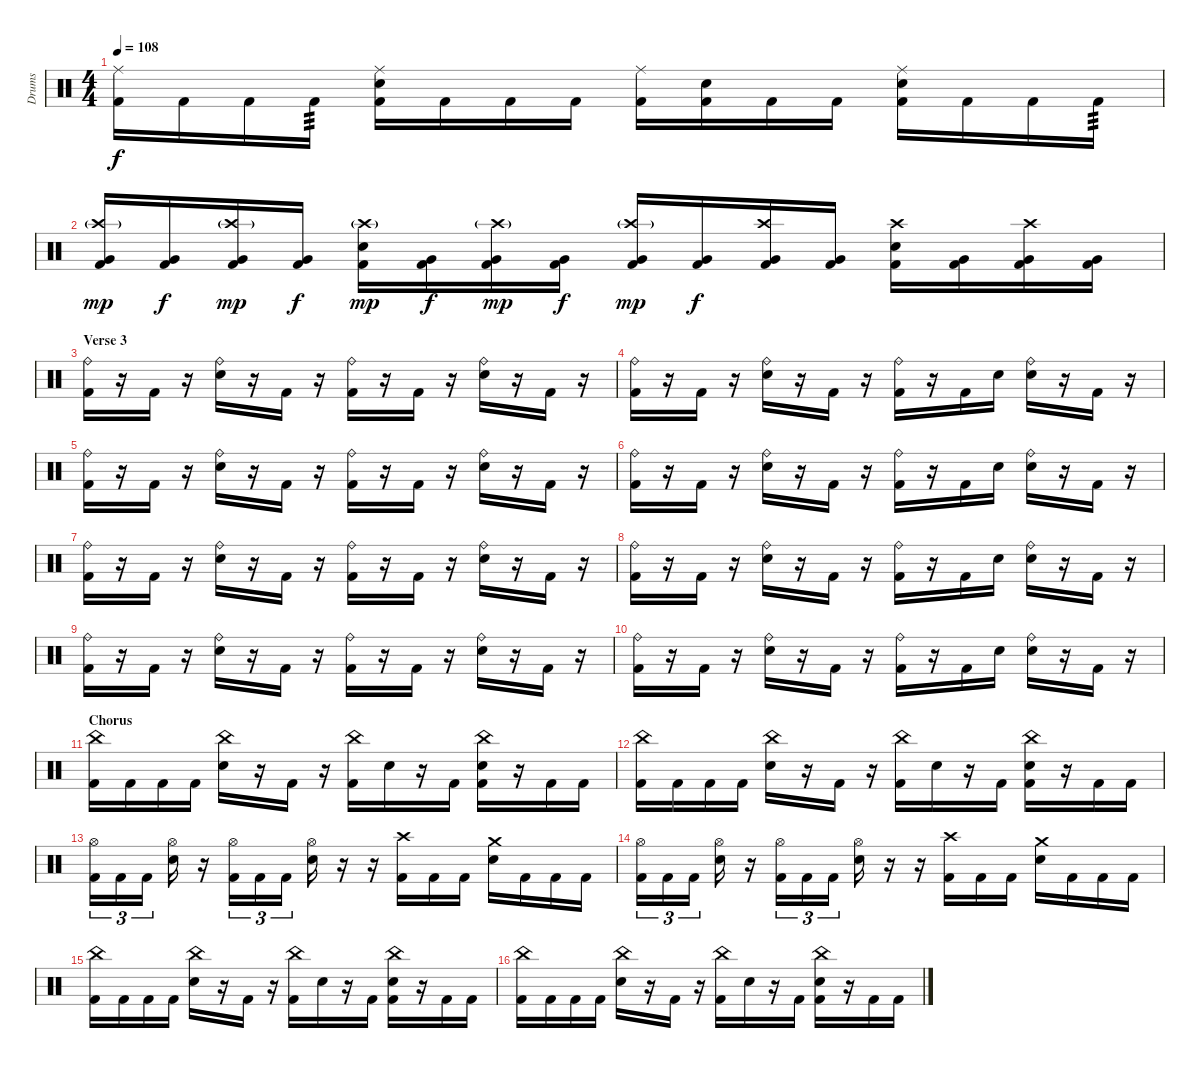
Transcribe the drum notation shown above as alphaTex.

\track ("Drums" "Drums") {instrument percussion}
\staff {score}
\articulation defaults
\ts (4 4)
\tempo 108
\clef neutral
\ks c
("Ride (middle)" "Kick (hit) 2").16{dy f} "Kick (hit) 2".16 "Kick (hit) 2".16 "Kick (hit) 2".16{tp 3} ("Ride (middle)" "Electric Snare (hit)" "Kick (hit) 2").16 "Kick (hit) 2".16 "Kick (hit) 2".16 "Kick (hit) 2".16 ("Ride (middle)" "Kick (hit) 2").16 ("Electric Snare (hit)" "Kick (hit) 2").16 "Kick (hit) 2".16 "Kick (hit) 2".16 ("Ride (middle)" "Electric Snare (hit)" "Kick (hit) 2").16 "Kick (hit) 2".16 "Kick (hit) 2".16 "Kick (hit) 2".16{tp 3} |
("Crash high (hit)"{g} "Very Low Tom (hit)" "Kick (hit) 2").16{dy mp} ("Very Low Tom (hit)" "Kick (hit) 2").16{dy f} ("Crash high (hit)"{g} "Very Low Tom (hit)" "Kick (hit) 2").16{dy mp} ("Very Low Tom (hit)" "Kick (hit) 2").16{dy f} ("Crash high (hit)"{g} "Electric Snare (hit)" "Kick (hit) 2").16{dy mp} ("Very Low Tom (hit)" "Kick (hit) 2").16{dy f} ("Crash high (hit)"{g} "Very Low Tom (hit)" "Kick (hit) 2").16{dy mp} ("Very Low Tom (hit)" "Kick (hit) 2").16{dy f} ("Crash high (hit)"{g} "Very Low Tom (hit)" "Kick (hit) 2").16{dy mp} ("Very Low Tom (hit)" "Kick (hit) 2").16{dy f} ("Crash high (hit)" "Very Low Tom (hit)" "Kick (hit) 2").16 ("Very Low Tom (hit)" "Kick (hit) 2").16 ("Crash high (hit)" "Electric Snare (hit)" "Kick (hit) 2").16 ("Very Low Tom (hit)" "Kick (hit) 2").16 ("Crash high (hit)" "Very Low Tom (hit)" "Kick (hit) 2").16 ("Very Low Tom (hit)" "Kick (hit) 2").16 |
\section ("" "Verse 3")
("Ride (bell)" "Kick (hit) 2").16 r.16 "Kick (hit) 2".16 r.16 ("Ride (bell)" "Electric Snare (hit)").16 r.16 "Kick (hit) 2".16 r.16 ("Ride (bell)" "Kick (hit) 2").16 r.16 "Kick (hit) 2".16 r.16 ("Ride (bell)" "Electric Snare (hit)").16 r.16 "Kick (hit) 2".16 r.16 |
("Ride (bell)" "Kick (hit) 2").16 r.16 "Kick (hit) 2".16 r.16 ("Ride (bell)" "Electric Snare (hit)").16 r.16 "Kick (hit) 2".16 r.16 ("Ride (bell)" "Kick (hit) 2").16 r.16 "Kick (hit) 2".16 "Electric Snare (hit)".16 ("Ride (bell)" "Electric Snare (hit)").16 r.16 "Kick (hit) 2".16 r.16 |
("Ride (bell)" "Kick (hit) 2").16 r.16 "Kick (hit) 2".16 r.16 ("Ride (bell)" "Electric Snare (hit)").16 r.16 "Kick (hit) 2".16 r.16 ("Ride (bell)" "Kick (hit) 2").16 r.16 "Kick (hit) 2".16 r.16 ("Ride (bell)" "Electric Snare (hit)").16 r.16 "Kick (hit) 2".16 r.16 |
("Ride (bell)" "Kick (hit) 2").16 r.16 "Kick (hit) 2".16 r.16 ("Ride (bell)" "Electric Snare (hit)").16 r.16 "Kick (hit) 2".16 r.16 ("Ride (bell)" "Kick (hit) 2").16 r.16 "Kick (hit) 2".16 "Electric Snare (hit)".16 ("Ride (bell)" "Electric Snare (hit)").16 r.16 "Kick (hit) 2".16 r.16 |
("Ride (bell)" "Kick (hit) 2").16 r.16 "Kick (hit) 2".16 r.16 ("Ride (bell)" "Electric Snare (hit)").16 r.16 "Kick (hit) 2".16 r.16 ("Ride (bell)" "Kick (hit) 2").16 r.16 "Kick (hit) 2".16 r.16 ("Ride (bell)" "Electric Snare (hit)").16 r.16 "Kick (hit) 2".16 r.16 |
("Ride (bell)" "Kick (hit) 2").16 r.16 "Kick (hit) 2".16 r.16 ("Ride (bell)" "Electric Snare (hit)").16 r.16 "Kick (hit) 2".16 r.16 ("Ride (bell)" "Kick (hit) 2").16 r.16 "Kick (hit) 2".16 "Electric Snare (hit)".16 ("Ride (bell)" "Electric Snare (hit)").16 r.16 "Kick (hit) 2".16 r.16 |
("Ride (bell)" "Kick (hit) 2").16 r.16 "Kick (hit) 2".16 r.16 ("Ride (bell)" "Electric Snare (hit)").16 r.16 "Kick (hit) 2".16 r.16 ("Ride (bell)" "Kick (hit) 2").16 r.16 "Kick (hit) 2".16 r.16 ("Ride (bell)" "Electric Snare (hit)").16 r.16 "Kick (hit) 2".16 r.16 |
("Ride (bell)" "Kick (hit) 2").16 r.16 "Kick (hit) 2".16 r.16 ("Ride (bell)" "Electric Snare (hit)").16 r.16 "Kick (hit) 2".16 r.16 ("Ride (bell)" "Kick (hit) 2").16 r.16 "Kick (hit) 2".16 "Electric Snare (hit)".16 ("Ride (bell)" "Electric Snare (hit)").16 r.16 "Kick (hit) 2".16 r.16 |
\section ("" "Chorus")
("China (hit)" "Kick (hit) 2").16 "Kick (hit) 2".16 "Kick (hit) 2".16 "Kick (hit) 2".16 ("China (hit)" "Electric Snare (hit)").16 r.16 "Kick (hit) 2".16 r.16 ("China (hit)" "Kick (hit) 2").16 "Electric Snare (hit)".16 r.16 "Kick (hit) 2".16 ("China (hit)" "Electric Snare (hit)" "Kick (hit) 2").16 r.16 "Kick (hit) 2".16 "Kick (hit) 2".16 |
("China (hit)" "Kick (hit) 2").16 "Kick (hit) 2".16 "Kick (hit) 2".16 "Kick (hit) 2".16 ("China (hit)" "Electric Snare (hit)").16 r.16 "Kick (hit) 2".16 r.16 ("China (hit)" "Kick (hit) 2").16 "Electric Snare (hit)".16 r.16 "Kick (hit) 2".16 ("China (hit)" "Electric Snare (hit)" "Kick (hit) 2").16 r.16 "Kick (hit) 2".16 "Kick (hit) 2".16 |
("Hi-Hat (open)" "Kick (hit) 2").16{tu (3 2)} "Kick (hit) 2".16{tu (3 2)} "Kick (hit) 2".16{tu (3 2)} ("Hi-Hat (open)" "Electric Snare (hit)").16 r.16 ("Hi-Hat (open)" "Kick (hit) 2").16{tu (3 2)} "Kick (hit) 2".16{tu (3 2)} "Kick (hit) 2".16{tu (3 2)} ("Hi-Hat (open)" "Electric Snare (hit)").16 r.16 r.16 ("Crash high (hit)" "Kick (hit) 2").16 "Kick (hit) 2".16 "Kick (hit) 2".16 ("Crash medium (hit)" "Electric Snare (hit)").16 "Kick (hit) 2".16 "Kick (hit) 2".16 "Kick (hit) 2".16 |
("Hi-Hat (open)" "Kick (hit) 2").16{tu (3 2)} "Kick (hit) 2".16{tu (3 2)} "Kick (hit) 2".16{tu (3 2)} ("Hi-Hat (open)" "Electric Snare (hit)").16 r.16 ("Hi-Hat (open)" "Kick (hit) 2").16{tu (3 2)} "Kick (hit) 2".16{tu (3 2)} "Kick (hit) 2".16{tu (3 2)} ("Hi-Hat (open)" "Electric Snare (hit)").16 r.16 r.16 ("Crash high (hit)" "Kick (hit) 2").16 "Kick (hit) 2".16 "Kick (hit) 2".16 ("Crash medium (hit)" "Electric Snare (hit)").16 "Kick (hit) 2".16 "Kick (hit) 2".16 "Kick (hit) 2".16 |
("China (hit)" "Kick (hit) 2").16 "Kick (hit) 2".16 "Kick (hit) 2".16 "Kick (hit) 2".16 ("China (hit)" "Electric Snare (hit)").16 r.16 "Kick (hit) 2".16 r.16 ("China (hit)" "Kick (hit) 2").16 "Electric Snare (hit)".16 r.16 "Kick (hit) 2".16 ("China (hit)" "Electric Snare (hit)" "Kick (hit) 2").16 r.16 "Kick (hit) 2".16 "Kick (hit) 2".16 |
("China (hit)" "Kick (hit) 2").16 "Kick (hit) 2".16 "Kick (hit) 2".16 "Kick (hit) 2".16 ("China (hit)" "Electric Snare (hit)").16 r.16 "Kick (hit) 2".16 r.16 ("China (hit)" "Kick (hit) 2").16 "Electric Snare (hit)".16 r.16 "Kick (hit) 2".16 ("China (hit)" "Electric Snare (hit)" "Kick (hit) 2").16 r.16 "Kick (hit) 2".16 "Kick (hit) 2".16
